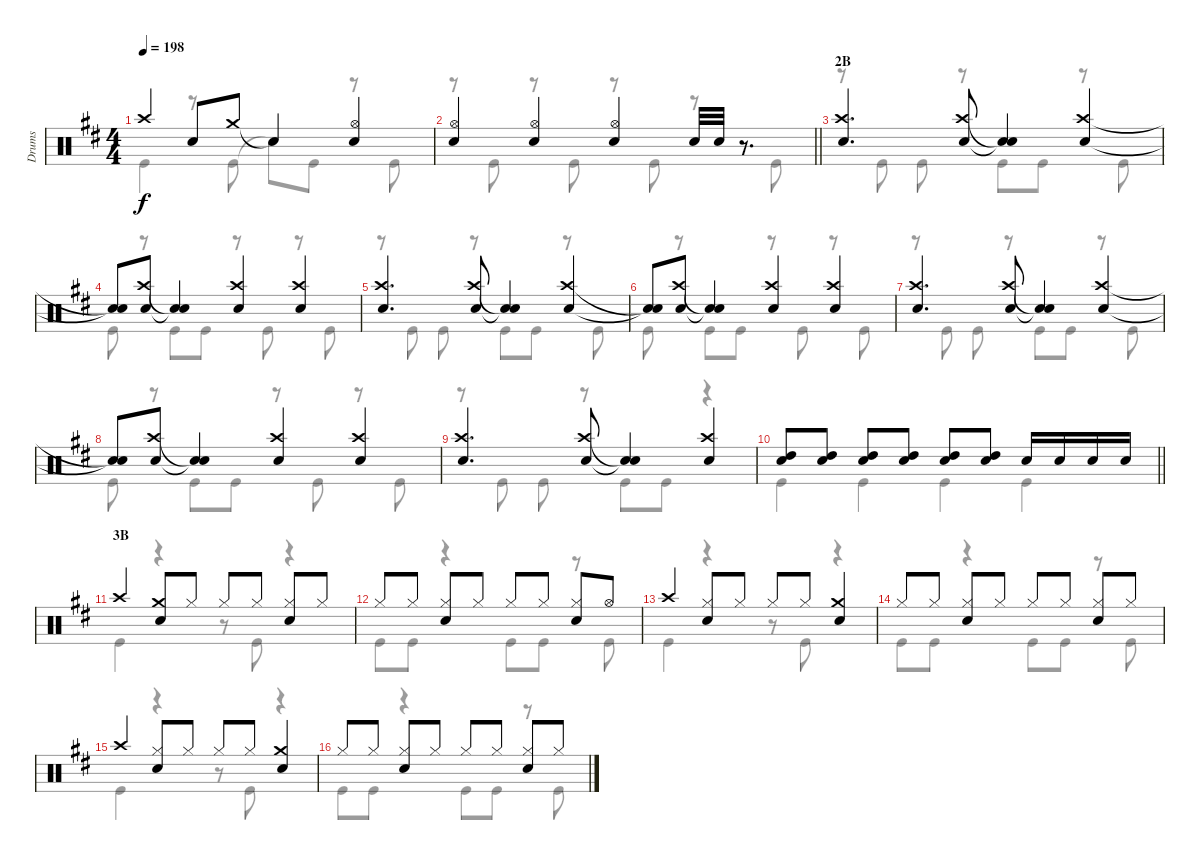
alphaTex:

\track ("Drums" "Drums") {instrument percussion}
\staff {score}
\articulation defaults
\voice
\ts (4 4)
\tempo 198
\clef neutral
\ks d "Crash high (hit)".4{dy f} "Snare (hit) 2".8 "Crash medium (hit)".8 "Snare (hit)"{t}.4
("Hi-Hat (open)" "Snare (hit) 2").4 |
\barLineRight lightlight
("Hi-Hat (open)" "Snare (hit) 2").4 ("Hi-Hat (open)" "Snare (hit) 2").4 ("Hi-Hat (open)" "Snare (hit) 2").4 "Snare (hit) 2".32 "Snare (hit) 2".32 r.8{d} |
\section ("" "2B")
("Crash high (hit)" "Snare (hit) 2").4{d} ("Crash high (hit)" "Snare (hit) 2").8 ("Snare (hit)"{t} "Snare (hit)"{t}).4 ("Crash high (hit)" "Snare (hit) 2").4 |
("Snare (hit)"{t} "Snare (hit)"{t}).8 ("Crash high (hit)" "Snare (hit) 2").8 ("Snare (hit)"{t} "Snare (hit)"{t}).4 ("Crash high (hit)" "Snare (hit) 2").4 ("Crash high (hit)" "Snare (hit) 2").4 |
("Crash high (hit)" "Snare (hit) 2").4{d} ("Crash high (hit)" "Snare (hit) 2").8 ("Snare (hit)"{t} "Snare (hit)"{t}).4 ("Crash high (hit)" "Snare (hit) 2").4 |
("Snare (hit)"{t} "Snare (hit)"{t}).8 ("Crash high (hit)" "Snare (hit) 2").8 ("Snare (hit)"{t} "Snare (hit)"{t}).4 ("Crash high (hit)" "Snare (hit) 2").4 ("Crash high (hit)" "Snare (hit) 2").4 |
("Crash high (hit)" "Snare (hit) 2").4{d} ("Crash high (hit)" "Snare (hit) 2").8 ("Snare (hit)"{t} "Snare (hit)"{t}).4 ("Crash high (hit)" "Snare (hit) 2").4 |
("Snare (hit)"{t} "Snare (hit)"{t}).8 ("Crash high (hit)" "Snare (hit) 2").8 ("Snare (hit)"{t} "Snare (hit)"{t}).4 ("Crash high (hit)" "Snare (hit) 2").4 ("Crash high (hit)" "Snare (hit) 2").4 |
("Crash high (hit)" "Snare (hit) 2").4{d} ("Crash high (hit)" "Snare (hit) 2").8 ("Snare (hit)"{t} "Snare (hit)"{t}).4 ("Crash high (hit)" "Snare (hit) 2").4 |
\barLineRight lightlight
("Snare (hit) 2" "High Tom (hit)").8 ("Snare (hit) 2" "High Tom (hit)").8 ("Snare (hit) 2" "High Tom (hit)").8 ("Snare (hit) 2" "High Tom (hit)").8 ("Snare (hit) 2" "High Tom (hit)").8 ("Snare (hit) 2" "High Tom (hit)").8 "Snare (hit) 2".16 "Snare (hit) 2".16 "Snare (hit) 2".16 "Snare (hit) 2".16 |
\section ("" "3B")
"Crash high (hit)".4 ("Crash medium (hit)" "Snare (hit) 2").8 "Hi-Hat (closed)".8 "Hi-Hat (closed)".8 "Hi-Hat (closed)".8 ("Hi-Hat (closed)" "Snare (hit) 2").8 "Hi-Hat (closed)".8 |
"Hi-Hat (closed)".8 "Hi-Hat (closed)".8 ("Hi-Hat (closed)" "Snare (hit) 2").8 "Hi-Hat (closed)".8 "Hi-Hat (closed)".8 "Hi-Hat (closed)".8 ("Hi-Hat (closed)" "Snare (hit) 2").8 "Hi-Hat (open)".8 |
"Crash high (hit)".4 ("Hi-Hat (closed)" "Snare (hit) 2").8 "Hi-Hat (closed)".8 "Hi-Hat (closed)".8 "Hi-Hat (closed)".8 ("Crash medium (hit)" "Snare (hit) 2").4 |
"Hi-Hat (closed)".8 "Hi-Hat (closed)".8 ("Hi-Hat (closed)" "Snare (hit) 2").8 "Hi-Hat (closed)".8 "Hi-Hat (closed)".8 "Hi-Hat (closed)".8 ("Hi-Hat (closed)" "Snare (hit) 2").8 "Hi-Hat (closed)".8 |
"Crash high (hit)".4 ("Hi-Hat (closed)" "Snare (hit) 2").8 "Hi-Hat (closed)".8 "Hi-Hat (closed)".8 "Hi-Hat (closed)".8 ("Crash medium (hit)" "Snare (hit) 2").4 |
"Hi-Hat (closed)".8 "Hi-Hat (closed)".8 ("Hi-Hat (closed)" "Snare (hit) 2").8 "Hi-Hat (closed)".8 "Hi-Hat (closed)".8 "Hi-Hat (closed)".8 ("Hi-Hat (closed)" "Snare (hit) 2").8 "Hi-Hat (closed)".8
\voice
\clef neutral
\ottava regular
\simile none
\ks d "Kick (hit)".4{dy f}
r.8 "Kick (hit)".8 "Snare (hit)"{t}.8 "Kick (hit)".8 r.8 "Kick (hit)".8 |
\barLineRight lightlight
r.8 "Kick (hit)".8 r.8 "Kick (hit)".8 r.8 "Kick (hit)".8 r.8 "Kick (hit)".8 |
r.8 "Kick (hit)".8 "Kick (hit)".8 r.8 "Kick (hit)".8 "Kick (hit)".8 r.8 "Kick (hit)".8 |
"Kick (hit)".8 r.8 "Kick (hit)".8 "Kick (hit)".8 r.8 "Kick (hit)".8 r.8 "Kick (hit)".8 |
r.8 "Kick (hit)".8 "Kick (hit)".8 r.8 "Kick (hit)".8 "Kick (hit)".8 r.8 "Kick (hit)".8 |
"Kick (hit)".8 r.8 "Kick (hit)".8 "Kick (hit)".8 r.8 "Kick (hit)".8 r.8 "Kick (hit)".8 |
r.8 "Kick (hit)".8 "Kick (hit)".8 r.8 "Kick (hit)".8 "Kick (hit)".8 r.8 "Kick (hit)".8 |
"Kick (hit)".8 r.8 "Kick (hit)".8 "Kick (hit)".8 r.8 "Kick (hit)".8 r.8 "Kick (hit)".8 |
r.8 "Kick (hit)".8 "Kick (hit)".8 r.8 "Kick (hit)".8 "Kick (hit)".8 r.4 |
\barLineRight lightlight "Kick (hit)".4 "Kick (hit)".4 "Kick (hit)".4 "Kick (hit)".4
|
"Kick (hit)".4 r.4 r.8 "Kick (hit)".8 r.4 |
"Kick (hit)".8 "Kick (hit)".8 r.4 "Kick (hit)".8 "Kick (hit)".8 r.8 "Kick (hit)".8 |
"Kick (hit)".4 r.4 r.8 "Kick (hit)".8 r.4 |
"Kick (hit)".8 "Kick (hit)".8 r.4 "Kick (hit)".8 "Kick (hit)".8 r.8 "Kick (hit)".8 |
"Kick (hit)".4 r.4 r.8 "Kick (hit)".8 r.4 |
"Kick (hit)".8 "Kick (hit)".8 r.4 "Kick (hit)".8 "Kick (hit)".8 r.8 "Kick (hit)".8
